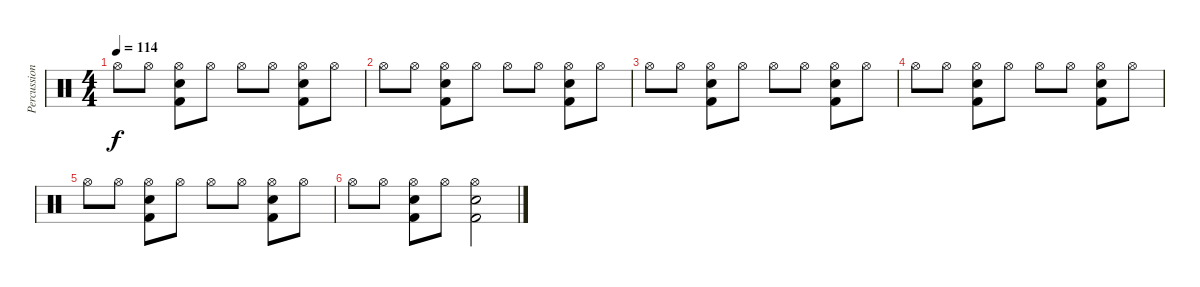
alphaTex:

\track ("Percussion" "Percussion") {instrument percussion}
\staff {score}
\articulation defaults
\ts (4 4)
\tempo 114
\clef neutral
\ks c "Hi-Hat (open)".8{dy f} "Hi-Hat (open)".8
("Hi-Hat (open)" "Snare (hit) 2" "Kick (hit) 2").8 "Hi-Hat (open)".8 "Hi-Hat (open)".8 "Hi-Hat (open)".8 ("Hi-Hat (open)" "Snare (hit) 2" "Kick (hit) 2").8 "Hi-Hat (open)".8 |
"Hi-Hat (open)".8 "Hi-Hat (open)".8 ("Hi-Hat (open)" "Snare (hit) 2" "Kick (hit) 2").8 "Hi-Hat (open)".8 "Hi-Hat (open)".8 "Hi-Hat (open)".8 ("Hi-Hat (open)" "Snare (hit) 2" "Kick (hit) 2").8 "Hi-Hat (open)".8 |
"Hi-Hat (open)".8 "Hi-Hat (open)".8 ("Hi-Hat (open)" "Snare (hit) 2" "Kick (hit) 2").8 "Hi-Hat (open)".8 "Hi-Hat (open)".8 "Hi-Hat (open)".8 ("Hi-Hat (open)" "Snare (hit) 2" "Kick (hit) 2").8 "Hi-Hat (open)".8 |
"Hi-Hat (open)".8 "Hi-Hat (open)".8 ("Hi-Hat (open)" "Snare (hit) 2" "Kick (hit) 2").8 "Hi-Hat (open)".8 "Hi-Hat (open)".8 "Hi-Hat (open)".8 ("Hi-Hat (open)" "Snare (hit) 2" "Kick (hit) 2").8 "Hi-Hat (open)".8 |
"Hi-Hat (open)".8 "Hi-Hat (open)".8 ("Hi-Hat (open)" "Snare (hit) 2" "Kick (hit) 2").8 "Hi-Hat (open)".8 "Hi-Hat (open)".8 "Hi-Hat (open)".8 ("Hi-Hat (open)" "Snare (hit) 2" "Kick (hit) 2").8 "Hi-Hat (open)".8 |
"Hi-Hat (open)".8 "Hi-Hat (open)".8 ("Hi-Hat (open)" "Snare (hit) 2" "Kick (hit) 2").8 "Hi-Hat (open)".8 ("Hi-Hat (open)" "Snare (hit) 2" "Kick (hit) 2").2
